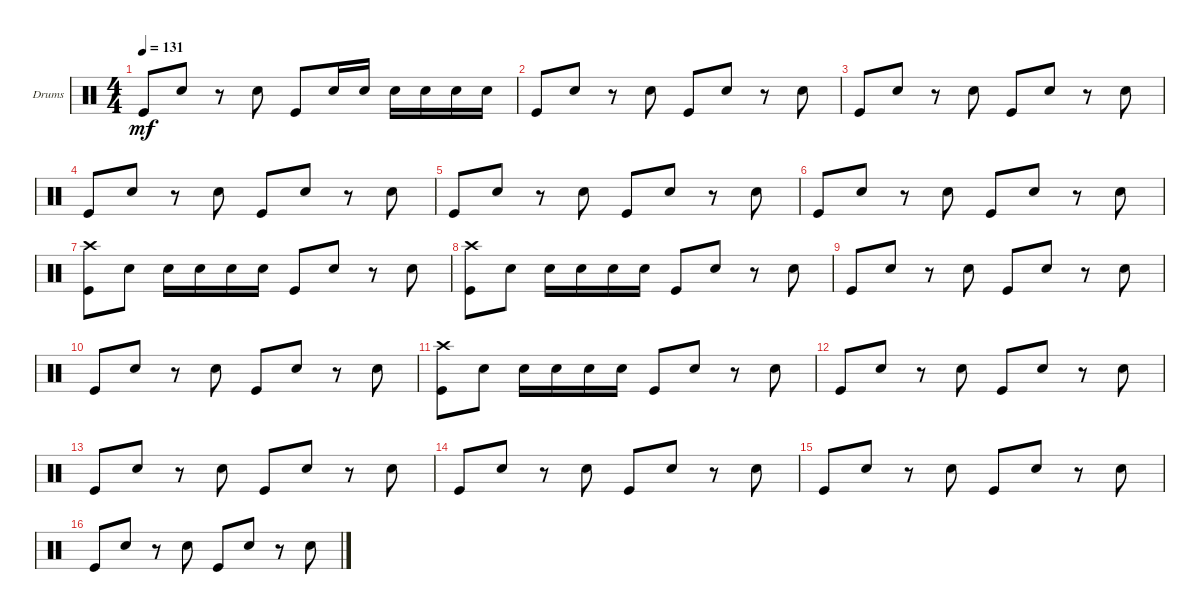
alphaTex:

\bracketExtendMode groupsimilarinstruments
\firstSystemTrackNameOrientation horizontal
\otherSystemsTrackNameOrientation horizontal
\track ("Drumkit" "Drums") {instrument percussion}
\staff {score}
\articulation defaults
\ts (4 4)
\tempo 131
\clef neutral
\scale
0.333333
\ks c "Kick (hit)".8{dy mf} "Snare (hit) 2".8
r.8 "Snare (hit) 2".8 "Kick (hit)".8 "Snare (hit) 2".16 "Snare (hit) 2".16 "Snare (hit) 2".16 "Snare (hit) 2".16 "Snare (hit) 2".16 "Snare (hit) 2".16 |
\scale
0.333333 "Kick (hit)".8 "Snare (hit) 2".8 r.8 "Snare (hit) 2".8 "Kick (hit)".8 "Snare (hit) 2".8 r.8 "Snare (hit) 2".8 |
\scale
0.333333 "Kick (hit)".8 "Snare (hit) 2".8 r.8 "Snare (hit) 2".8 "Kick (hit)".8 "Snare (hit) 2".8 r.8 "Snare (hit) 2".8 |
\scale
0.333333 "Kick (hit)".8 "Snare (hit) 2".8 r.8 "Snare (hit) 2".8 "Kick (hit)".8 "Snare (hit) 2".8 r.8 "Snare (hit) 2".8 |
\scale
0.333333 "Kick (hit)".8 "Snare (hit) 2".8 r.8 "Snare (hit) 2".8 "Kick (hit)".8 "Snare (hit) 2".8 r.8 "Snare (hit) 2".8 |
\scale
0.333333 "Kick (hit)".8 "Snare (hit) 2".8 r.8 "Snare (hit) 2".8 "Kick (hit)".8 "Snare (hit) 2".8 r.8 "Snare (hit) 2".8 |
\scale
0.333333 ("Kick (hit)" "Crash high (hit)").8 "Snare (hit) 2".8 "Snare (hit) 2".16 "Snare (hit) 2".16 "Snare (hit) 2".16 "Snare (hit) 2".16 "Kick (hit)".8 "Snare (hit) 2".8 r.8 "Snare (hit) 2".8 |
\scale
0.333333 ("Kick (hit)" "Crash high (hit)").8 "Snare (hit) 2".8 "Snare (hit) 2".16 "Snare (hit) 2".16 "Snare (hit) 2".16 "Snare (hit) 2".16 "Kick (hit)".8 "Snare (hit) 2".8 r.8 "Snare (hit) 2".8 |
\scale
0.333333 "Kick (hit)".8 "Snare (hit) 2".8 r.8 "Snare (hit) 2".8 "Kick (hit)".8 "Snare (hit) 2".8 r.8 "Snare (hit) 2".8 |
\scale
0.333333 "Kick (hit)".8 "Snare (hit) 2".8 r.8 "Snare (hit) 2".8 "Kick (hit)".8 "Snare (hit) 2".8 r.8 "Snare (hit) 2".8 |
\scale
0.333333 ("Kick (hit)" "Crash high (hit)").8 "Snare (hit) 2".8 "Snare (hit) 2".16 "Snare (hit) 2".16 "Snare (hit) 2".16 "Snare (hit) 2".16 "Kick (hit)".8 "Snare (hit) 2".8 r.8 "Snare (hit) 2".8 |
\scale
0.333333 "Kick (hit)".8 "Snare (hit) 2".8 r.8 "Snare (hit) 2".8 "Kick (hit)".8 "Snare (hit) 2".8 r.8 "Snare (hit) 2".8 |
\scale
0.333333 "Kick (hit)".8 "Snare (hit) 2".8 r.8 "Snare (hit) 2".8 "Kick (hit)".8 "Snare (hit) 2".8 r.8 "Snare (hit) 2".8 |
\scale
0.333333 "Kick (hit)".8 "Snare (hit) 2".8 r.8 "Snare (hit) 2".8 "Kick (hit)".8 "Snare (hit) 2".8 r.8 "Snare (hit) 2".8 |
\scale
0.333333 "Kick (hit)".8 "Snare (hit) 2".8 r.8 "Snare (hit) 2".8 "Kick (hit)".8 "Snare (hit) 2".8 r.8 "Snare (hit) 2".8 |
\scale
0.333333 "Kick (hit)".8 "Snare (hit) 2".8 r.8 "Snare (hit) 2".8 "Kick (hit)".8 "Snare (hit) 2".8 r.8 "Snare (hit) 2".8
